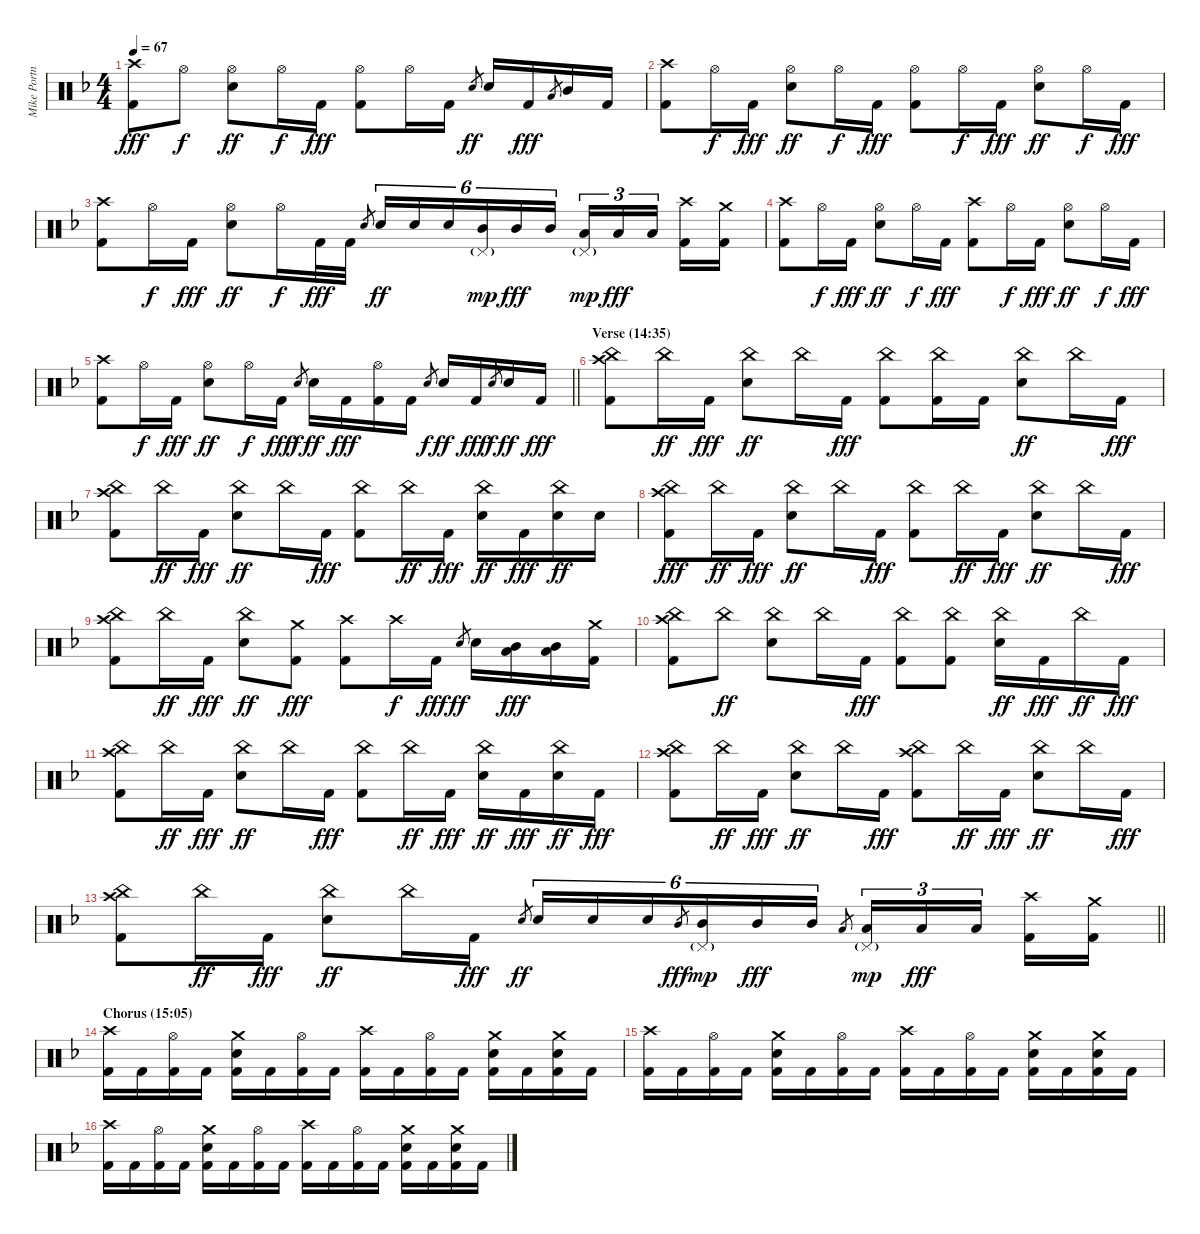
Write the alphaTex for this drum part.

\track ("Mike Portnoy Drums" "Mike Portn") {instrument percussion}
\staff {score}
\articulation defaults
\ts (4 4)
\tempo 67
\clef neutral
\ks dminor
("Crash high (hit)" "Kick (hit) 2").8{dy fff} "Hi-Hat (open)".8{dy f} ("Hi-Hat (open)" "Electric Snare (hit)").8{dy ff} "Hi-Hat (open)".16{dy f} "Kick (hit) 2".16{dy fff} ("Hi-Hat (open)" "Kick (hit) 2").8 "Hi-Hat (open)".16 "Kick (hit) 2".16 "Electric Snare (hit)".8{gr dy ff} "Electric Snare (hit)".16 "Kick (hit) 2".16{dy fff} "Low Tom (hit)".8{gr} "Mid Tom (hit)".16 "Kick (hit) 2".16 |
("Crash high (hit)" "Kick (hit) 2").8 "Hi-Hat (open)".16{dy f} "Kick (hit) 2".16{dy fff} ("Hi-Hat (open)" "Electric Snare (hit)").8{dy ff} "Hi-Hat (open)".16{dy f} "Kick (hit) 2".16{dy fff} ("Hi-Hat (open)" "Kick (hit) 2").8 "Hi-Hat (open)".16{dy f} "Kick (hit) 2".16{dy fff} ("Hi-Hat (open)" "Electric Snare (hit)").8{dy ff} "Hi-Hat (open)".16{dy f} "Kick (hit) 2".16{dy fff} |
("Crash high (hit)" "Kick (hit) 2").8 "Hi-Hat (open)".16{dy f} "Kick (hit) 2".16{dy fff} ("Hi-Hat (open)" "Electric Snare (hit)").8{dy ff} "Hi-Hat (open)".16{dy f} "Kick (hit) 2".32{dy fff} "Kick (hit) 2".32 "Electric Snare (hit)".8{gr} "Electric Snare (hit)".16{tu (6 4) dy ff} "Electric Snare (hit)".16{tu (6 4)} "Electric Snare (hit)".16{tu (6 4)} ("Mid Tom (hit)" "Pedal Hi-Hat (hit)"{g}).16{tu (6 4) dy mp} "Mid Tom (hit)".16{tu (6 4) dy fff} "Mid Tom (hit)".16{tu (6 4)} ("Low Tom (hit)" "Pedal Hi-Hat (hit)"{g}).16{tu (3 2) dy mp} "Low Tom (hit)".16{tu (3 2) dy fff} "Low Tom (hit)".16{tu (3 2) beam splitsecondary} ("Crash high (hit)" "Kick (hit) 2").16 ("Crash medium (hit)" "Kick (hit) 2").16 |
("Crash high (hit)" "Kick (hit) 2").8 "Hi-Hat (open)".16{dy f} "Kick (hit) 2".16{dy fff} ("Hi-Hat (open)" "Electric Snare (hit)").8{dy ff} "Hi-Hat (open)".16{dy f} "Kick (hit) 2".16{dy fff} ("Crash high (hit)" "Kick (hit) 2").8 "Hi-Hat (open)".16{dy f} "Kick (hit) 2".16{dy fff} ("Hi-Hat (open)" "Electric Snare (hit)").8{dy ff} "Hi-Hat (open)".16{dy f} "Kick (hit) 2".16{dy fff} |
\barLineRight lightlight
("Crash high (hit)" "Kick (hit) 2").8 "Hi-Hat (open)".16{dy f} "Kick (hit) 2".16{dy fff} ("Hi-Hat (open)" "Electric Snare (hit)").8{dy ff} "Hi-Hat (open)".16{dy f} "Kick (hit) 2".16{dy fff} "Electric Snare (hit)".8{gr dy f} "Electric Snare (hit)".16{dy ff} "Kick (hit) 2".16{dy fff} ("Hi-Hat (open)" "Kick (hit) 2").16 "Kick (hit) 2".16 "Electric Snare (hit)".8{gr dy f} "Electric Snare (hit)".16{dy ff} "Kick (hit) 2".16{dy fff} "Electric Snare (hit)".8{gr dy f} "Electric Snare (hit)".16{dy ff} "Kick (hit) 2".16{dy fff} |
\section ("" "Verse (14:35)")
("Crash high (hit)" "China (hit)" "Kick (hit) 2").8 "China (hit)".16{dy ff} "Kick (hit) 2".16{dy fff} ("China (hit)" "Electric Snare (hit)").8{dy ff} "China (hit)".16 "Kick (hit) 2".16{dy fff} ("China (hit)" "Kick (hit) 2").8 ("China (hit)" "Kick (hit) 2").16 "Kick (hit) 2".16 ("China (hit)" "Electric Snare (hit)").8{dy ff} "China (hit)".16 "Kick (hit) 2".16{dy fff} |
("Crash high (hit)" "China (hit)" "Kick (hit) 2").8 "China (hit)".16{dy ff} "Kick (hit) 2".16{dy fff} ("China (hit)" "Electric Snare (hit)").8{dy ff} "China (hit)".16 "Kick (hit) 2".16{dy fff} ("China (hit)" "Kick (hit) 2").8 "China (hit)".16{dy ff} "Kick (hit) 2".16{dy fff} ("China (hit)" "Electric Snare (hit)").16{dy ff} "Kick (hit) 2".16{dy fff} ("China (hit)" "Electric Snare (hit)").16{dy ff} "Electric Snare (hit)".16 |
("Crash high (hit)" "China (hit)" "Kick (hit) 2").8{dy fff} "China (hit)".16{dy ff} "Kick (hit) 2".16{dy fff} ("China (hit)" "Electric Snare (hit)").8{dy ff} "China (hit)".16 "Kick (hit) 2".16{dy fff} ("China (hit)" "Kick (hit) 2").8 "China (hit)".16{dy ff} "Kick (hit) 2".16{dy fff} ("China (hit)" "Electric Snare (hit)").8{dy ff} "China (hit)".16 "Kick (hit) 2".16{dy fff} |
("Crash high (hit)" "China (hit)" "Kick (hit) 2").8 "China (hit)".16{dy ff} "Kick (hit) 2".16{dy fff} ("China (hit)" "Electric Snare (hit)").8{dy ff} ("Crash medium (hit)" "Kick (hit) 2").8{dy fff} ("Crash high (hit)" "Kick (hit) 2").8 "Crash high (hit)".16{dy f} "Kick (hit) 2".16{dy fff} "Electric Snare (hit)".8{gr dy ff} "Electric Snare (hit)".16 ("Mid Tom (hit)" "Low Tom (hit)").16{dy fff} ("Mid Tom (hit)" "Low Tom (hit)").16 ("Crash medium (hit)" "Kick (hit) 2").16 |
("Crash high (hit)" "China (hit)" "Kick (hit) 2").8 "China (hit)".8{dy ff} ("China (hit)" "Electric Snare (hit)").8 "China (hit)".16 "Kick (hit) 2".16{dy fff} ("China (hit)" "Kick (hit) 2").8 ("China (hit)" "Kick (hit) 2").8 ("China (hit)" "Electric Snare (hit)").16{dy ff} "Kick (hit) 2".16{dy fff} "China (hit)".16{dy ff} "Kick (hit) 2".16{dy fff} |
("Crash high (hit)" "China (hit)" "Kick (hit) 2").8 "China (hit)".16{dy ff} "Kick (hit) 2".16{dy fff} ("China (hit)" "Electric Snare (hit)").8{dy ff} "China (hit)".16 "Kick (hit) 2".16{dy fff} ("China (hit)" "Kick (hit) 2").8 "China (hit)".16{dy ff} "Kick (hit) 2".16{dy fff} ("China (hit)" "Electric Snare (hit)").16{dy ff} "Kick (hit) 2".16{dy fff} ("China (hit)" "Electric Snare (hit)").16{dy ff} "Kick (hit) 2".16{dy fff} |
("Crash high (hit)" "China (hit)" "Kick (hit) 2").8 "China (hit)".16{dy ff} "Kick (hit) 2".16{dy fff} ("China (hit)" "Electric Snare (hit)").8{dy ff} "China (hit)".16 "Kick (hit) 2".16{dy fff} ("Crash high (hit)" "China (hit)" "Kick (hit) 2").8 "China (hit)".16{dy ff} "Kick (hit) 2".16{dy fff} ("China (hit)" "Electric Snare (hit)").8{dy ff} "China (hit)".16 "Kick (hit) 2".16{dy fff} |
\barLineRight lightlight
("Crash high (hit)" "China (hit)" "Kick (hit) 2").8 "China (hit)".16{dy ff} "Kick (hit) 2".16{dy fff} ("China (hit)" "Electric Snare (hit)").8{dy ff} "China (hit)".16 "Kick (hit) 2".16{dy fff} "Electric Snare (hit)".8{gr dy ff} "Electric Snare (hit)".16{tu (6 4)} "Electric Snare (hit)".16{tu (6 4)} "Electric Snare (hit)".16{tu (6 4)} "Mid Tom (hit)".8{gr dy fff} ("Mid Tom (hit)" "Pedal Hi-Hat (hit)"{g}).16{tu (6 4) dy mp} "Mid Tom (hit)".16{tu (6 4) dy fff} "Mid Tom (hit)".16{tu (6 4)} "Low Tom (hit)".8{gr} ("Low Tom (hit)" "Pedal Hi-Hat (hit)"{g}).16{tu (3 2) dy mp} "Low Tom (hit)".16{tu (3 2) dy fff} "Low Tom (hit)".16{tu (3 2) beam splitsecondary} ("Crash high (hit)" "Kick (hit) 2").16 ("Crash medium (hit)" "Kick (hit) 2").16 |
\section ("" "Chorus (15:05)")
("Crash high (hit)" "Kick (hit) 2").16 "Kick (hit) 2".16 ("Hi-Hat (open)" "Kick (hit) 2").16 "Kick (hit) 2".16 ("Crash medium (hit)" "Electric Snare (hit)" "Kick (hit) 2").16 "Kick (hit) 2".16 ("Hi-Hat (open)" "Kick (hit) 2").16 "Kick (hit) 2".16 ("Crash high (hit)" "Kick (hit) 2").16 "Kick (hit) 2".16 ("Hi-Hat (open)" "Kick (hit) 2").16 "Kick (hit) 2".16 ("Crash medium (hit)" "Electric Snare (hit)" "Kick (hit) 2").16 "Kick (hit) 2".16 ("Crash medium (hit)" "Electric Snare (hit)" "Kick (hit) 2").16 "Kick (hit) 2".16 |
("Crash high (hit)" "Kick (hit) 2").16 "Kick (hit) 2".16 ("Hi-Hat (open)" "Kick (hit) 2").16 "Kick (hit) 2".16 ("Crash medium (hit)" "Electric Snare (hit)" "Kick (hit) 2").16 "Kick (hit) 2".16 ("Hi-Hat (open)" "Kick (hit) 2").16 "Kick (hit) 2".16 ("Crash high (hit)" "Kick (hit) 2").16 "Kick (hit) 2".16 ("Hi-Hat (open)" "Kick (hit) 2").16 "Kick (hit) 2".16 ("Crash medium (hit)" "Electric Snare (hit)" "Kick (hit) 2").16 "Kick (hit) 2".16 ("Crash medium (hit)" "Electric Snare (hit)" "Kick (hit) 2").16 "Kick (hit) 2".16 |
("Crash high (hit)" "Kick (hit) 2").16 "Kick (hit) 2".16 ("Hi-Hat (open)" "Kick (hit) 2").16 "Kick (hit) 2".16 ("Crash medium (hit)" "Electric Snare (hit)" "Kick (hit) 2").16 "Kick (hit) 2".16 ("Hi-Hat (open)" "Kick (hit) 2").16 "Kick (hit) 2".16 ("Crash high (hit)" "Kick (hit) 2").16 "Kick (hit) 2".16 ("Hi-Hat (open)" "Kick (hit) 2").16 "Kick (hit) 2".16 ("Crash medium (hit)" "Electric Snare (hit)" "Kick (hit) 2").16 "Kick (hit) 2".16 ("Crash medium (hit)" "Electric Snare (hit)" "Kick (hit) 2").16 "Kick (hit) 2".16
